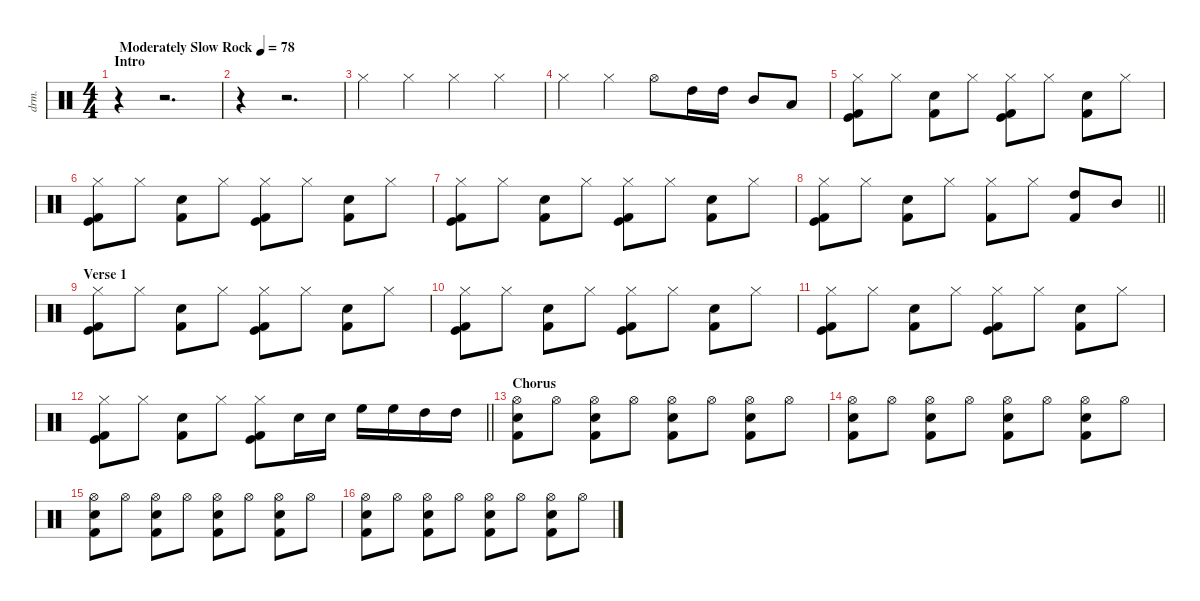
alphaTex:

\defaultSystemsLayout 4
\hideDynamics
\bracketExtendMode nobrackets
\otherSystemsTrackNameOrientation horizontal
\track ("Drums" "drm.") {instrument percussion}
\staff {score}
\articulation defaults
\ts (4 4)
\beaming (8 2 2 2 2)
\section ("" "Intro")
\tempo (78 "Moderately Slow Rock")
\clef neutral
\ks c
r.4{dy f} r.2{d} |
r.4 r.2{d} |
"Hi-Hat (closed)".4 "Hi-Hat (closed)".4 "Hi-Hat (closed)".4 "Hi-Hat (closed)".4 |
"Hi-Hat (closed)".4 "Hi-Hat (closed)".4 "Hi-Hat (open)".8 "High Tom (hit)".16 "High Tom (hit)".16 "Mid Tom (hit)".8 "Low Tom (hit)".8 |
("Hi-Hat (closed)" "Kick (hit)" "Kick (hit) 2").8 "Hi-Hat (closed)".8 ("Snare (hit) 2" "Kick (hit) 2").8 "Hi-Hat (closed)".8 ("Hi-Hat (closed)" "Kick (hit)" "Kick (hit) 2").8 "Hi-Hat (closed)".8 ("Snare (hit) 2" "Kick (hit) 2").8 "Hi-Hat (closed)".8 |
("Hi-Hat (closed)" "Kick (hit)" "Kick (hit) 2").8 "Hi-Hat (closed)".8 ("Snare (hit) 2" "Kick (hit) 2").8 "Hi-Hat (closed)".8 ("Hi-Hat (closed)" "Kick (hit)" "Kick (hit) 2").8 "Hi-Hat (closed)".8 ("Snare (hit) 2" "Kick (hit) 2").8 "Hi-Hat (closed)".8 |
("Hi-Hat (closed)" "Kick (hit)" "Kick (hit) 2").8 "Hi-Hat (closed)".8 ("Snare (hit) 2" "Kick (hit) 2").8 "Hi-Hat (closed)".8 ("Hi-Hat (closed)" "Kick (hit)" "Kick (hit) 2").8 "Hi-Hat (closed)".8 ("Snare (hit) 2" "Kick (hit) 2").8 "Hi-Hat (closed)".8 |
\barLineRight lightlight
("Hi-Hat (closed)" "Kick (hit)" "Kick (hit) 2").8 "Hi-Hat (closed)".8 ("Snare (hit) 2" "Kick (hit) 2").8 "Hi-Hat (closed)".8 ("Hi-Hat (closed)" "Kick (hit) 2").8 "Hi-Hat (closed)".8 ("High Tom (hit)" "Kick (hit) 2").8 "Mid Tom (hit)".8 |
\section ("" "Verse 1")
("Hi-Hat (closed)" "Kick (hit)" "Kick (hit) 2").8{dy mp} "Hi-Hat (closed)".8 ("Snare (hit) 2" "Kick (hit) 2").8 "Hi-Hat (closed)".8 ("Hi-Hat (closed)" "Kick (hit)" "Kick (hit) 2").8 "Hi-Hat (closed)".8 ("Snare (hit) 2" "Kick (hit) 2").8 "Hi-Hat (closed)".8 |
("Hi-Hat (closed)" "Kick (hit)" "Kick (hit) 2").8 "Hi-Hat (closed)".8 ("Snare (hit) 2" "Kick (hit) 2").8 "Hi-Hat (closed)".8 ("Hi-Hat (closed)" "Kick (hit)" "Kick (hit) 2").8 "Hi-Hat (closed)".8 ("Snare (hit) 2" "Kick (hit) 2").8 "Hi-Hat (closed)".8 |
("Hi-Hat (closed)" "Kick (hit)" "Kick (hit) 2").8 "Hi-Hat (closed)".8 ("Snare (hit) 2" "Kick (hit) 2").8 "Hi-Hat (closed)".8 ("Hi-Hat (closed)" "Kick (hit)" "Kick (hit) 2").8 "Hi-Hat (closed)".8 ("Snare (hit) 2" "Kick (hit) 2").8 "Hi-Hat (closed)".8 |
\barLineRight lightlight
("Hi-Hat (closed)" "Kick (hit)" "Kick (hit) 2").8 "Hi-Hat (closed)".8 ("Snare (hit) 2" "Kick (hit) 2").8 "Hi-Hat (closed)".8 ("Hi-Hat (closed)" "Kick (hit)" "Kick (hit) 2").8{dy f} "Snare (hit) 2".16 "Snare (hit) 2".16 "High Floor Tom (hit)".16 "High Floor Tom (hit)".16 "High Tom (hit)".16 "High Tom (hit)".16 |
\section ("" "Chorus")
("Hi-Hat (open)" "Snare (hit) 2" "Kick (hit) 2").8 "Hi-Hat (open)".8 ("Hi-Hat (open)" "Snare (hit) 2" "Kick (hit) 2").8 "Hi-Hat (open)".8 ("Hi-Hat (open)" "Snare (hit) 2" "Kick (hit) 2").8 "Hi-Hat (open)".8 ("Hi-Hat (open)" "Snare (hit) 2" "Kick (hit) 2").8 "Hi-Hat (open)".8 |
("Hi-Hat (open)" "Snare (hit) 2" "Kick (hit) 2").8 "Hi-Hat (open)".8 ("Hi-Hat (open)" "Snare (hit) 2" "Kick (hit) 2").8 "Hi-Hat (open)".8 ("Hi-Hat (open)" "Snare (hit) 2" "Kick (hit) 2").8 "Hi-Hat (open)".8 ("Hi-Hat (open)" "Snare (hit) 2" "Kick (hit) 2").8 "Hi-Hat (open)".8 |
("Hi-Hat (open)" "Snare (hit) 2" "Kick (hit) 2").8 "Hi-Hat (open)".8 ("Hi-Hat (open)" "Snare (hit) 2" "Kick (hit) 2").8 "Hi-Hat (open)".8 ("Hi-Hat (open)" "Snare (hit) 2" "Kick (hit) 2").8 "Hi-Hat (open)".8 ("Hi-Hat (open)" "Snare (hit) 2" "Kick (hit) 2").8 "Hi-Hat (open)".8 |
("Hi-Hat (open)" "Snare (hit) 2" "Kick (hit) 2").8 "Hi-Hat (open)".8 ("Hi-Hat (open)" "Snare (hit) 2" "Kick (hit) 2").8 "Hi-Hat (open)".8 ("Hi-Hat (open)" "Snare (hit) 2" "Kick (hit) 2").8 "Hi-Hat (open)".8 ("Hi-Hat (open)" "Snare (hit) 2" "Kick (hit) 2").8 "Hi-Hat (open)".8
